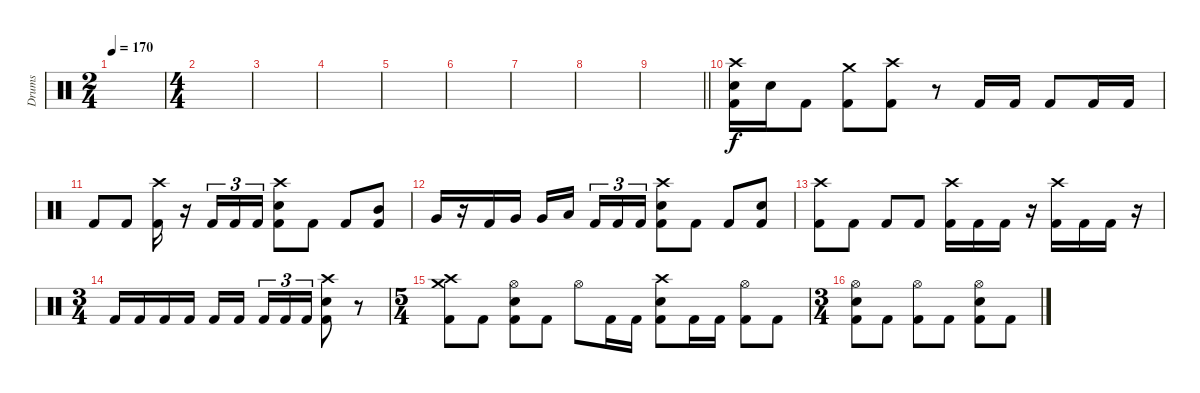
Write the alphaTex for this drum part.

\track ("Drums" "Drums") {instrument percussion}
\staff
\articulation defaults
\ts (2 4)
\tempo 170
\clef neutral
\ks c
|
\ts (4 4)
|
|
|
|
|
|
|
\barLineRight lightlight
|
("Crash high (hit)" "Electric Snare (hit)" "Kick (hit) 2").16 "Electric Snare (hit)".16 "Kick (hit) 2".8 ("Crash medium (hit)" "Kick (hit) 2").8 ("Crash high (hit)" "Kick (hit) 2").8 r.8 "Kick (hit) 2".16 "Kick (hit) 2".16 "Kick (hit) 2".8 "Kick (hit) 2".16 "Kick (hit) 2".16 |
"Kick (hit) 2".8 "Kick (hit) 2".8 ("Crash high (hit)" "Kick (hit) 2").16 r.16 "Kick (hit) 2".16{tu (3 2)} "Kick (hit) 2".16{tu (3 2)} "Kick (hit) 2".16{tu (3 2)} ("Crash high (hit)" "Electric Snare (hit)" "Kick (hit) 2").8 "Kick (hit) 2".8 "Kick (hit) 2".8 ("Mid Tom (hit)" "Kick (hit) 2").8 |
"Very Low Tom (hit)".16 r.16 "Kick (hit) 2".16 "Very Low Tom (hit)".16 "Very Low Tom (hit)".16 "Low Floor Tom (hit)".16{beam splitsecondary} "Kick (hit) 2".16{tu (3 2)} "Kick (hit) 2".16{tu (3 2)} "Kick (hit) 2".16{tu (3 2)} ("Crash high (hit)" "Electric Snare (hit)" "Kick (hit) 2").8 "Kick (hit) 2".8 "Kick (hit) 2".8 ("Electric Snare (hit)" "Kick (hit) 2").8 |
("Crash high (hit)" "Kick (hit) 2").8 "Kick (hit) 2".8 "Kick (hit) 2".8 "Kick (hit) 2".8 ("Crash high (hit)" "Kick (hit) 2").16 "Kick (hit) 2".16 "Kick (hit) 2".16 r.16 ("Crash high (hit)" "Kick (hit) 2").16 "Kick (hit) 2".16 "Kick (hit) 2".16 r.16 |
\ts (3 4)
"Kick (hit) 2".16 "Kick (hit) 2".16 "Kick (hit) 2".16 "Kick (hit) 2".16 "Kick (hit) 2".16 "Kick (hit) 2".16{beam splitsecondary} "Kick (hit) 2".16{tu (3 2)} "Kick (hit) 2".16{tu (3 2)} "Kick (hit) 2".16{tu (3 2)} ("Crash high (hit)" "Electric Snare (hit)" "Kick (hit) 2").8 r.8 |
\ts (5 4)
("Crash medium (hit)" "Crash high (hit)" "Kick (hit) 2").8 "Kick (hit) 2".8 ("Hi-Hat (open)" "Electric Snare (hit)" "Kick (hit) 2").8 "Kick (hit) 2".8 "Hi-Hat (open)".8 "Kick (hit) 2".16 "Kick (hit) 2".16 ("Crash high (hit)" "Electric Snare (hit)" "Kick (hit) 2").8 "Kick (hit) 2".16 "Kick (hit) 2".16 ("Hi-Hat (open)" "Kick (hit) 2").8 "Kick (hit) 2".8 |
\ts (3 4)
("Hi-Hat (open)" "Electric Snare (hit)" "Kick (hit) 2").8 "Kick (hit) 2".8 ("Hi-Hat (open)" "Kick (hit) 2").8 "Kick (hit) 2".8 ("Hi-Hat (open)" "Electric Snare (hit)" "Kick (hit) 2").8 "Kick (hit) 2".8
